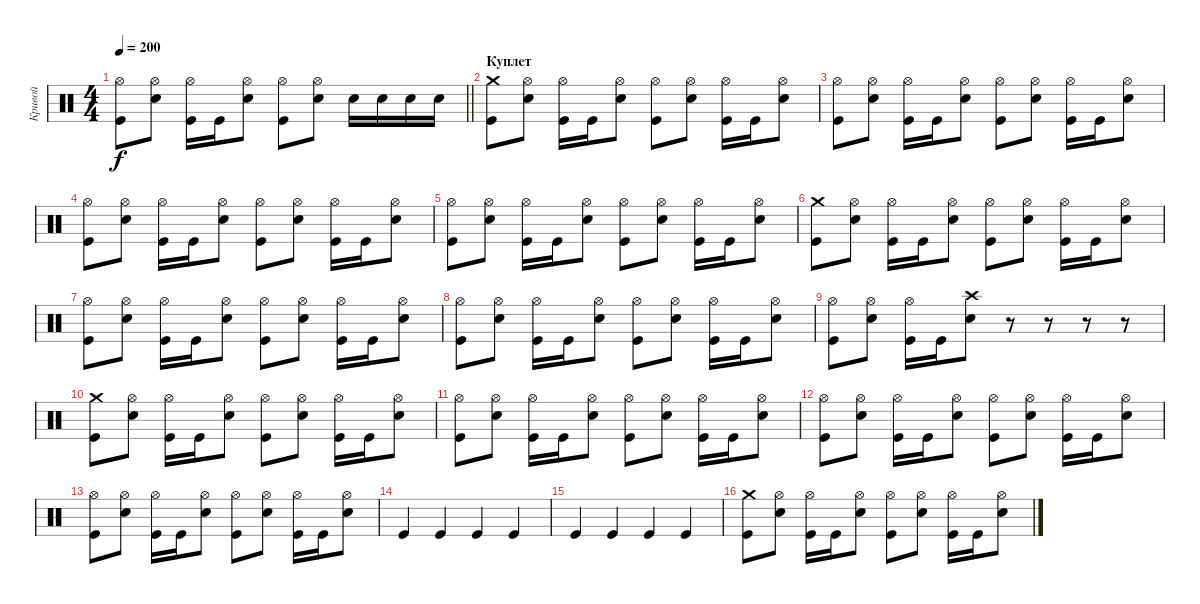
\track ("Кривой" "Кривой") {instrument percussion}
\staff {score}
\articulation defaults
\ts (4 4)
\tempo 200
\clef neutral
\barLineRight lightlight
\ks c
("Hi-Hat (open)" "Kick (hit)").8{dy f} ("Hi-Hat (open)" "Electric Snare (hit)").8 ("Hi-Hat (open)" "Kick (hit)").16 "Kick (hit)".16 ("Hi-Hat (open)" "Electric Snare (hit)").8 ("Hi-Hat (open)" "Kick (hit)").8 ("Hi-Hat (open)" "Electric Snare (hit)").8 "Electric Snare (hit)".16 "Electric Snare (hit)".16 "Electric Snare (hit)".16 "Electric Snare (hit)".16 |
\section ("" "Куплет")
("Crash medium (hit)" "Kick (hit)").8 ("Hi-Hat (open)" "Electric Snare (hit)").8 ("Hi-Hat (open)" "Kick (hit)").16 "Kick (hit)".16 ("Hi-Hat (open)" "Electric Snare (hit)").8 ("Hi-Hat (open)" "Kick (hit)").8 ("Hi-Hat (open)" "Electric Snare (hit)").8 ("Hi-Hat (open)" "Kick (hit)").16 "Kick (hit)".16 ("Hi-Hat (open)" "Electric Snare (hit)").8 |
("Hi-Hat (open)" "Kick (hit)").8 ("Hi-Hat (open)" "Electric Snare (hit)").8 ("Hi-Hat (open)" "Kick (hit)").16 "Kick (hit)".16 ("Hi-Hat (open)" "Electric Snare (hit)").8 ("Hi-Hat (open)" "Kick (hit)").8 ("Hi-Hat (open)" "Electric Snare (hit)").8 ("Hi-Hat (open)" "Kick (hit)").16 "Kick (hit)".16 ("Hi-Hat (open)" "Electric Snare (hit)").8 |
("Hi-Hat (open)" "Kick (hit)").8 ("Hi-Hat (open)" "Electric Snare (hit)").8 ("Hi-Hat (open)" "Kick (hit)").16 "Kick (hit)".16 ("Hi-Hat (open)" "Electric Snare (hit)").8 ("Hi-Hat (open)" "Kick (hit)").8 ("Hi-Hat (open)" "Electric Snare (hit)").8 ("Hi-Hat (open)" "Kick (hit)").16 "Kick (hit)".16 ("Hi-Hat (open)" "Electric Snare (hit)").8 |
("Hi-Hat (open)" "Kick (hit)").8 ("Hi-Hat (open)" "Electric Snare (hit)").8 ("Hi-Hat (open)" "Kick (hit)").16 "Kick (hit)".16 ("Hi-Hat (open)" "Electric Snare (hit)").8 ("Hi-Hat (open)" "Kick (hit)").8 ("Hi-Hat (open)" "Electric Snare (hit)").8 ("Hi-Hat (open)" "Kick (hit)").16 "Kick (hit)".16 ("Hi-Hat (open)" "Electric Snare (hit)").8 |
("Crash medium (hit)" "Kick (hit)").8 ("Hi-Hat (open)" "Electric Snare (hit)").8 ("Hi-Hat (open)" "Kick (hit)").16 "Kick (hit)".16 ("Hi-Hat (open)" "Electric Snare (hit)").8 ("Hi-Hat (open)" "Kick (hit)").8 ("Hi-Hat (open)" "Electric Snare (hit)").8 ("Hi-Hat (open)" "Kick (hit)").16 "Kick (hit)".16 ("Hi-Hat (open)" "Electric Snare (hit)").8 |
("Hi-Hat (open)" "Kick (hit)").8 ("Hi-Hat (open)" "Electric Snare (hit)").8 ("Hi-Hat (open)" "Kick (hit)").16 "Kick (hit)".16 ("Hi-Hat (open)" "Electric Snare (hit)").8 ("Hi-Hat (open)" "Kick (hit)").8 ("Hi-Hat (open)" "Electric Snare (hit)").8 ("Hi-Hat (open)" "Kick (hit)").16 "Kick (hit)".16 ("Hi-Hat (open)" "Electric Snare (hit)").8 |
("Hi-Hat (open)" "Kick (hit)").8 ("Hi-Hat (open)" "Electric Snare (hit)").8 ("Hi-Hat (open)" "Kick (hit)").16 "Kick (hit)".16 ("Hi-Hat (open)" "Electric Snare (hit)").8 ("Hi-Hat (open)" "Kick (hit)").8 ("Hi-Hat (open)" "Electric Snare (hit)").8 ("Hi-Hat (open)" "Kick (hit)").16 "Kick (hit)".16 ("Hi-Hat (open)" "Electric Snare (hit)").8 |
("Hi-Hat (open)" "Kick (hit)").8 ("Hi-Hat (open)" "Electric Snare (hit)").8 ("Hi-Hat (open)" "Kick (hit)").16 "Kick (hit)".16 ("Crash high (hit)" "Electric Snare (hit)").8 r.8 r.8 r.8 r.8 |
("Crash medium (hit)" "Kick (hit)").8 ("Hi-Hat (open)" "Electric Snare (hit)").8 ("Hi-Hat (open)" "Kick (hit)").16 "Kick (hit)".16 ("Hi-Hat (open)" "Electric Snare (hit)").8 ("Hi-Hat (open)" "Kick (hit)").8 ("Hi-Hat (open)" "Electric Snare (hit)").8 ("Hi-Hat (open)" "Kick (hit)").16 "Kick (hit)".16 ("Hi-Hat (open)" "Electric Snare (hit)").8 |
("Hi-Hat (open)" "Kick (hit)").8 ("Hi-Hat (open)" "Electric Snare (hit)").8 ("Hi-Hat (open)" "Kick (hit)").16 "Kick (hit)".16 ("Hi-Hat (open)" "Electric Snare (hit)").8 ("Hi-Hat (open)" "Kick (hit)").8 ("Hi-Hat (open)" "Electric Snare (hit)").8 ("Hi-Hat (open)" "Kick (hit)").16 "Kick (hit)".16 ("Hi-Hat (open)" "Electric Snare (hit)").8 |
("Hi-Hat (open)" "Kick (hit)").8 ("Hi-Hat (open)" "Electric Snare (hit)").8 ("Hi-Hat (open)" "Kick (hit)").16 "Kick (hit)".16 ("Hi-Hat (open)" "Electric Snare (hit)").8 ("Hi-Hat (open)" "Kick (hit)").8 ("Hi-Hat (open)" "Electric Snare (hit)").8 ("Hi-Hat (open)" "Kick (hit)").16 "Kick (hit)".16 ("Hi-Hat (open)" "Electric Snare (hit)").8 |
("Hi-Hat (open)" "Kick (hit)").8 ("Hi-Hat (open)" "Electric Snare (hit)").8 ("Hi-Hat (open)" "Kick (hit)").16 "Kick (hit)".16 ("Hi-Hat (open)" "Electric Snare (hit)").8 ("Hi-Hat (open)" "Kick (hit)").8 ("Hi-Hat (open)" "Electric Snare (hit)").8 ("Hi-Hat (open)" "Kick (hit)").16 "Kick (hit)".16 ("Hi-Hat (open)" "Electric Snare (hit)").8 |
"Kick (hit)".4 "Kick (hit)".4 "Kick (hit)".4 "Kick (hit)".4 |
"Kick (hit)".4 "Kick (hit)".4 "Kick (hit)".4 "Kick (hit)".4 |
("Crash medium (hit)" "Kick (hit)").8 ("Hi-Hat (open)" "Electric Snare (hit)").8 ("Hi-Hat (open)" "Kick (hit)").16 "Kick (hit)".16 ("Hi-Hat (open)" "Electric Snare (hit)").8 ("Hi-Hat (open)" "Kick (hit)").8 ("Hi-Hat (open)" "Electric Snare (hit)").8 ("Hi-Hat (open)" "Kick (hit)").16 "Kick (hit)".16 ("Hi-Hat (open)" "Electric Snare (hit)").8
